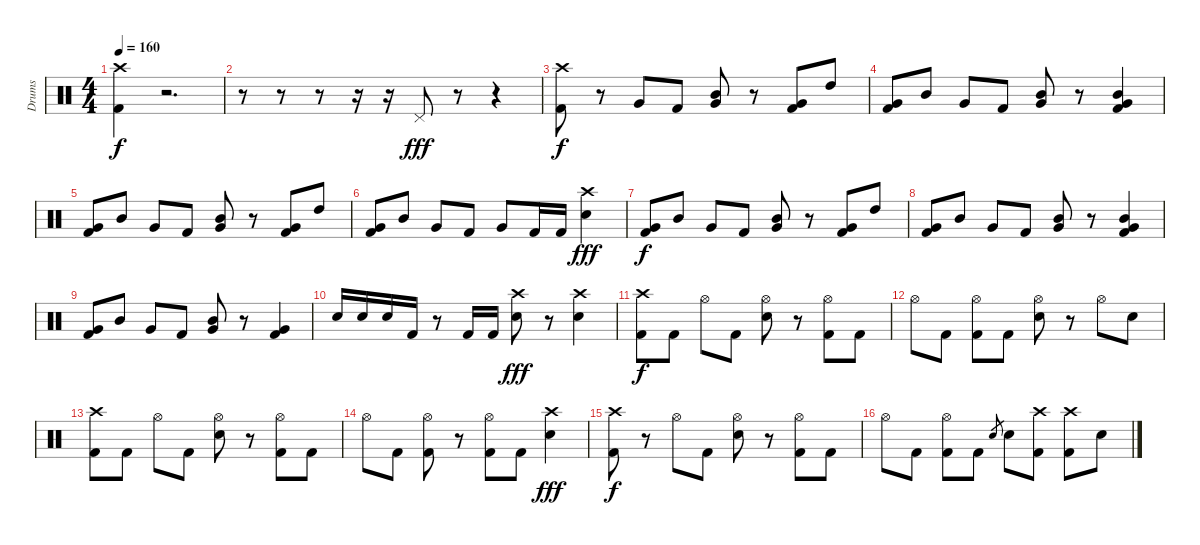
\track ("Drums" "Drums") {instrument percussion}
\staff {score}
\articulation defaults
\ts (4 4)
\tempo 160
\clef neutral
\ks c
("Crash high (hit)" "Kick (hit) 2").4{dy f} r.2{d} |
r.8 r.8 r.8 r.16 r.16 "Pedal Hi-Hat (hit)".8{dy fff} r.8 r.4 |
("Crash high (hit)" "Kick (hit) 2").8{dy f} r.8 "Very Low Tom (hit)".8 "Kick (hit) 2".8 ("Mid Tom (hit)" "Very Low Tom (hit)").8 r.8 ("Very Low Tom (hit)" "Kick (hit) 2").8 "High Tom (hit)".8 |
("Very Low Tom (hit)" "Kick (hit) 2").8 "Mid Tom (hit)".8 "Very Low Tom (hit)".8 "Kick (hit) 2".8 ("Mid Tom (hit)" "Very Low Tom (hit)").8 r.8 ("Mid Tom (hit)" "Very Low Tom (hit)" "Kick (hit) 2").4 |
("Very Low Tom (hit)" "Kick (hit) 2").8 "Mid Tom (hit)".8 "Very Low Tom (hit)".8 "Kick (hit) 2".8 ("Mid Tom (hit)" "Very Low Tom (hit)").8 r.8 ("Very Low Tom (hit)" "Kick (hit) 2").8 "High Tom (hit)".8 |
("Very Low Tom (hit)" "Kick (hit) 2").8 "Mid Tom (hit)".8 "Very Low Tom (hit)".8 "Kick (hit) 2".8 "Very Low Tom (hit)".8 "Kick (hit) 2".16 "Kick (hit) 2".16 ("Crash high (hit)" "Electric Snare (hit)").4{dy fff} |
("Very Low Tom (hit)" "Kick (hit) 2").8{dy f} "Mid Tom (hit)".8 "Very Low Tom (hit)".8 "Kick (hit) 2".8 ("Mid Tom (hit)" "Very Low Tom (hit)").8 r.8 ("Very Low Tom (hit)" "Kick (hit) 2").8 "High Tom (hit)".8 |
("Very Low Tom (hit)" "Kick (hit) 2").8 "Mid Tom (hit)".8 "Very Low Tom (hit)".8 "Kick (hit) 2".8 ("Mid Tom (hit)" "Very Low Tom (hit)").8 r.8 ("Mid Tom (hit)" "Very Low Tom (hit)" "Kick (hit) 2").4 |
("Very Low Tom (hit)" "Kick (hit) 2").8 "Mid Tom (hit)".8 "Very Low Tom (hit)".8 "Kick (hit) 2".8 ("Mid Tom (hit)" "Very Low Tom (hit)").8 r.8 ("Very Low Tom (hit)" "Kick (hit) 2").4 |
"Electric Snare (hit)".16 "Electric Snare (hit)".16 "Electric Snare (hit)".16 "Kick (hit) 2".16 r.8 "Kick (hit) 2".16 "Kick (hit) 2".16 ("Crash high (hit)" "Electric Snare (hit)").8{dy fff} r.8 ("Crash high (hit)" "Electric Snare (hit)").4 |
("Crash high (hit)" "Kick (hit) 2").8{dy f} "Kick (hit) 2".8 "Hi-Hat (open)".8 "Kick (hit) 2".8 ("Hi-Hat (open)" "Electric Snare (hit)").8 r.8 ("Hi-Hat (open)" "Kick (hit) 2").8 "Kick (hit) 2".8 |
"Hi-Hat (open)".8 "Kick (hit) 2".8 ("Hi-Hat (open)" "Kick (hit) 2").8 "Kick (hit) 2".8 ("Hi-Hat (open)" "Electric Snare (hit)").8 r.8 "Hi-Hat (open)".8 "Electric Snare (hit)".8 |
("Crash high (hit)" "Kick (hit) 2").8 "Kick (hit) 2".8 "Hi-Hat (open)".8 "Kick (hit) 2".8 ("Hi-Hat (open)" "Electric Snare (hit)").8 r.8 ("Hi-Hat (open)" "Kick (hit) 2").8 "Kick (hit) 2".8 |
"Hi-Hat (open)".8 "Kick (hit) 2".8 ("Hi-Hat (open)" "Kick (hit) 2").8 r.8 ("Hi-Hat (open)" "Kick (hit) 2").8 "Kick (hit) 2".8 ("Crash high (hit)" "Electric Snare (hit)").4{dy fff} |
("Crash high (hit)" "Kick (hit) 2").8{dy f} r.8 "Hi-Hat (open)".8 "Kick (hit) 2".8 ("Hi-Hat (open)" "Electric Snare (hit)").8 r.8 ("Hi-Hat (open)" "Kick (hit) 2").8 "Kick (hit) 2".8 |
"Hi-Hat (open)".8 "Kick (hit) 2".8 ("Hi-Hat (open)" "Kick (hit) 2").8 "Kick (hit) 2".8 "Electric Snare (hit)".8{gr} "Electric Snare (hit)".8 ("Crash high (hit)" "Kick (hit) 2").8 ("Crash high (hit)" "Kick (hit) 2").8 "Electric Snare (hit)".8
